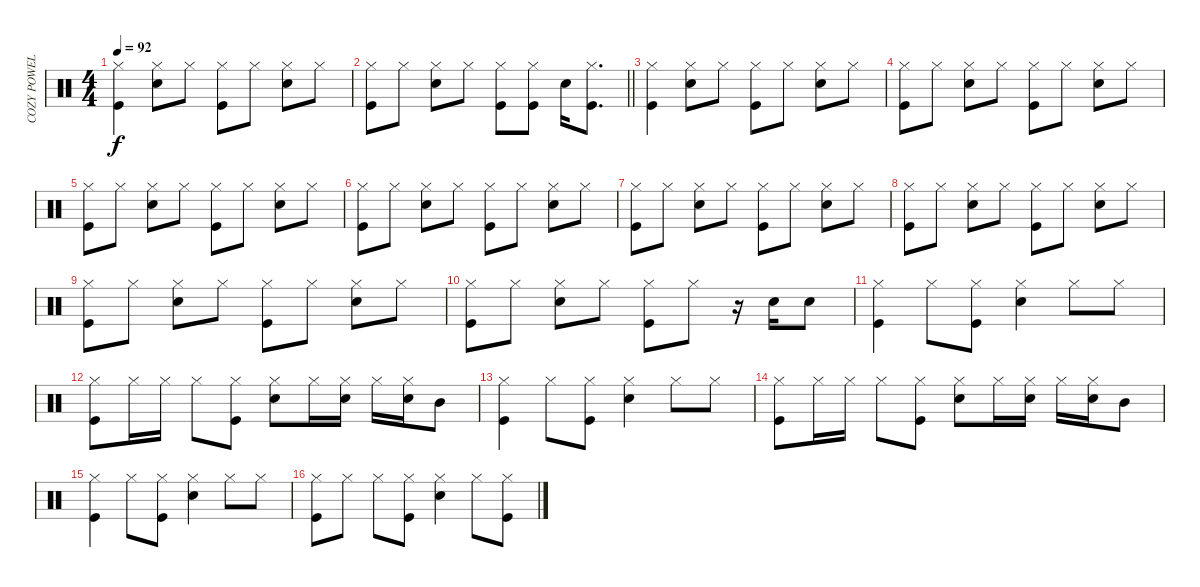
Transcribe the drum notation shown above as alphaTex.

\track ("COZY POWELL" "COZY POWEL") {instrument percussion}
\staff {score}
\articulation defaults
\ts (4 4)
\tempo 92
\clef neutral
\ks c
("Hi-Hat (closed)" "Kick (hit)").4{dy f} ("Hi-Hat (closed)" "Snare (hit) 2").8 "Hi-Hat (closed)".8 ("Hi-Hat (closed)" "Kick (hit)").8 "Hi-Hat (closed)".8 ("Hi-Hat (closed)" "Snare (hit) 2").8 "Hi-Hat (closed)".8 |
\barLineRight lightlight
("Hi-Hat (closed)" "Kick (hit)").8 "Hi-Hat (closed)".8 ("Hi-Hat (closed)" "Snare (hit) 2").8 "Hi-Hat (closed)".8 ("Hi-Hat (closed)" "Kick (hit)").8 ("Hi-Hat (closed)" "Kick (hit)").8 "Snare (hit) 2".16 ("Hi-Hat (closed)" "Kick (hit)").8{d} |
("Hi-Hat (closed)" "Kick (hit)").4 ("Hi-Hat (closed)" "Snare (hit) 2").8 "Hi-Hat (closed)".8 ("Hi-Hat (closed)" "Kick (hit)").8 "Hi-Hat (closed)".8 ("Hi-Hat (closed)" "Snare (hit) 2").8 "Hi-Hat (closed)".8 |
("Hi-Hat (closed)" "Kick (hit)").8 "Hi-Hat (closed)".8 ("Hi-Hat (closed)" "Snare (hit) 2").8 "Hi-Hat (closed)".8 ("Hi-Hat (closed)" "Kick (hit)").8 "Hi-Hat (closed)".8 ("Hi-Hat (closed)" "Snare (hit) 2").8 "Hi-Hat (closed)".8 |
("Hi-Hat (closed)" "Kick (hit)").8 "Hi-Hat (closed)".8 ("Hi-Hat (closed)" "Snare (hit) 2").8 "Hi-Hat (closed)".8 ("Hi-Hat (closed)" "Kick (hit)").8 "Hi-Hat (closed)".8 ("Hi-Hat (closed)" "Snare (hit) 2").8 "Hi-Hat (closed)".8 |
("Hi-Hat (closed)" "Kick (hit)").8 "Hi-Hat (closed)".8 ("Hi-Hat (closed)" "Snare (hit) 2").8 "Hi-Hat (closed)".8 ("Hi-Hat (closed)" "Kick (hit)").8 "Hi-Hat (closed)".8 ("Hi-Hat (closed)" "Snare (hit) 2").8 "Hi-Hat (closed)".8 |
("Hi-Hat (closed)" "Kick (hit)").8 "Hi-Hat (closed)".8 ("Hi-Hat (closed)" "Snare (hit) 2").8 "Hi-Hat (closed)".8 ("Hi-Hat (closed)" "Kick (hit)").8 "Hi-Hat (closed)".8 ("Hi-Hat (closed)" "Snare (hit) 2").8 "Hi-Hat (closed)".8 |
("Hi-Hat (closed)" "Kick (hit)").8 "Hi-Hat (closed)".8 ("Hi-Hat (closed)" "Snare (hit) 2").8 "Hi-Hat (closed)".8 ("Hi-Hat (closed)" "Kick (hit)").8 "Hi-Hat (closed)".8 ("Hi-Hat (closed)" "Snare (hit) 2").8 "Hi-Hat (closed)".8 |
("Hi-Hat (closed)" "Kick (hit)").8 "Hi-Hat (closed)".8 ("Hi-Hat (closed)" "Snare (hit) 2").8 "Hi-Hat (closed)".8 ("Hi-Hat (closed)" "Kick (hit)").8 "Hi-Hat (closed)".8 ("Hi-Hat (closed)" "Snare (hit) 2").8 "Hi-Hat (closed)".8 |
("Hi-Hat (closed)" "Kick (hit)").8 "Hi-Hat (closed)".8 ("Hi-Hat (closed)" "Snare (hit) 2").8 "Hi-Hat (closed)".8 ("Hi-Hat (closed)" "Kick (hit)").8 "Hi-Hat (closed)".8 r.16 "Snare (hit) 2".16 "Snare (hit) 2".8 |
("Hi-Hat (closed)" "Kick (hit)").4 "Hi-Hat (closed)".8 ("Hi-Hat (closed)" "Kick (hit)").8 ("Hi-Hat (closed)" "Snare (hit) 2").4 "Hi-Hat (closed)".8 "Hi-Hat (closed)".8 |
("Hi-Hat (closed)" "Kick (hit)").8 "Hi-Hat (closed)".16 "Hi-Hat (closed)".16 "Hi-Hat (closed)".8 ("Hi-Hat (closed)" "Kick (hit)").8 ("Hi-Hat (closed)" "Snare (hit) 2").8 "Hi-Hat (closed)".16 ("Hi-Hat (closed)" "Snare (hit) 2").16 "Hi-Hat (closed)".16 ("Hi-Hat (closed)" "Snare (hit) 2").16 "Mid Tom (hit)".8 |
("Hi-Hat (closed)" "Kick (hit)").4 "Hi-Hat (closed)".8 ("Hi-Hat (closed)" "Kick (hit)").8 ("Hi-Hat (closed)" "Snare (hit) 2").4 "Hi-Hat (closed)".8 "Hi-Hat (closed)".8 |
("Hi-Hat (closed)" "Kick (hit)").8 "Hi-Hat (closed)".16 "Hi-Hat (closed)".16 "Hi-Hat (closed)".8 ("Hi-Hat (closed)" "Kick (hit)").8 ("Hi-Hat (closed)" "Snare (hit) 2").8 "Hi-Hat (closed)".16 ("Hi-Hat (closed)" "Snare (hit) 2").16 "Hi-Hat (closed)".16 ("Hi-Hat (closed)" "Snare (hit) 2").16 "Mid Tom (hit)".8 |
("Hi-Hat (closed)" "Kick (hit)").4 "Hi-Hat (closed)".8 ("Hi-Hat (closed)" "Kick (hit)").8 ("Hi-Hat (closed)" "Snare (hit) 2").4 "Hi-Hat (closed)".8 "Hi-Hat (closed)".8 |
("Hi-Hat (closed)" "Kick (hit)").8 "Hi-Hat (closed)".8 "Hi-Hat (closed)".8 ("Hi-Hat (closed)" "Kick (hit)").8 ("Hi-Hat (closed)" "Snare (hit) 2").4 "Hi-Hat (closed)".8 ("Hi-Hat (closed)" "Kick (hit)").8
